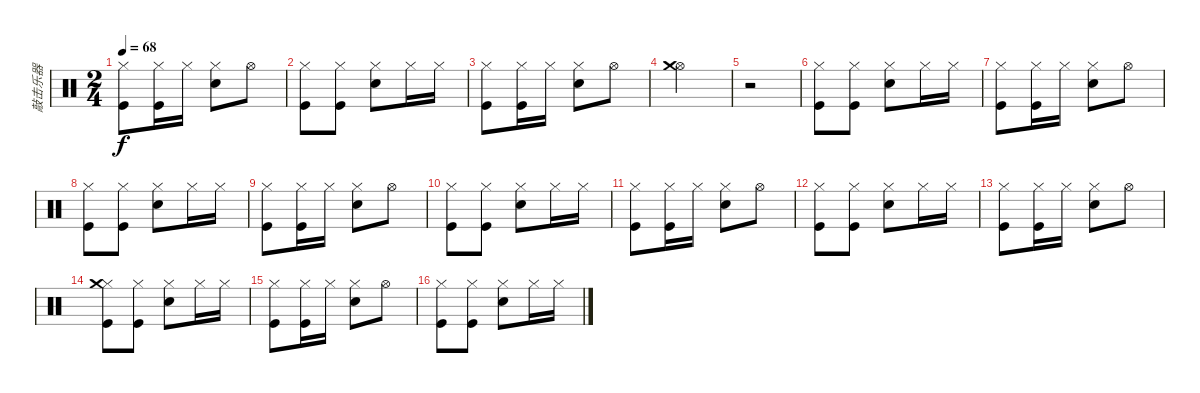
\track ("敲击乐器" "敲击乐器") {instrument percussion}
\staff {score}
\articulation defaults
\ts (2 4)
\tempo 68
\clef neutral
\ks c
("Hi-Hat (closed)" "Kick (hit)").8{dy f} ("Hi-Hat (closed)" "Kick (hit)").16 "Hi-Hat (closed)".16 ("Hi-Hat (closed)" "Snare (hit) 2").8 "Hi-Hat (open)".8 |
("Hi-Hat (closed)" "Kick (hit)").8 ("Hi-Hat (closed)" "Kick (hit)").8 ("Hi-Hat (closed)" "Snare (hit) 2").8 "Hi-Hat (closed)".16 "Hi-Hat (closed)".16 |
("Hi-Hat (closed)" "Kick (hit)").8 ("Hi-Hat (closed)" "Kick (hit)").16 "Hi-Hat (closed)".16 ("Hi-Hat (closed)" "Snare (hit) 2").8 "Hi-Hat (open)".8 |
("Hi-Hat (open)" "Crash medium (hit)").2 |
r.2 |
("Hi-Hat (closed)" "Kick (hit)").8 ("Hi-Hat (closed)" "Kick (hit)").8 ("Hi-Hat (closed)" "Snare (hit) 2").8 "Hi-Hat (closed)".16 "Hi-Hat (closed)".16 |
("Hi-Hat (closed)" "Kick (hit)").8 ("Hi-Hat (closed)" "Kick (hit)").16 "Hi-Hat (closed)".16 ("Hi-Hat (closed)" "Snare (hit) 2").8 "Hi-Hat (open)".8 |
("Hi-Hat (closed)" "Kick (hit)").8 ("Hi-Hat (closed)" "Kick (hit)").8 ("Hi-Hat (closed)" "Snare (hit) 2").8 "Hi-Hat (closed)".16 "Hi-Hat (closed)".16 |
("Hi-Hat (closed)" "Kick (hit)").8 ("Hi-Hat (closed)" "Kick (hit)").16 "Hi-Hat (closed)".16 ("Hi-Hat (closed)" "Snare (hit) 2").8 "Hi-Hat (open)".8 |
("Hi-Hat (closed)" "Kick (hit)").8 ("Hi-Hat (closed)" "Kick (hit)").8 ("Hi-Hat (closed)" "Snare (hit) 2").8 "Hi-Hat (closed)".16 "Hi-Hat (closed)".16 |
("Hi-Hat (closed)" "Kick (hit)").8 ("Hi-Hat (closed)" "Kick (hit)").16 "Hi-Hat (closed)".16 ("Hi-Hat (closed)" "Snare (hit) 2").8 "Hi-Hat (open)".8 |
("Hi-Hat (closed)" "Kick (hit)").8 ("Hi-Hat (closed)" "Kick (hit)").8 ("Hi-Hat (closed)" "Snare (hit) 2").8 "Hi-Hat (closed)".16 "Hi-Hat (closed)".16 |
("Hi-Hat (closed)" "Kick (hit)").8 ("Hi-Hat (closed)" "Kick (hit)").16 "Hi-Hat (closed)".16 ("Hi-Hat (closed)" "Snare (hit) 2").8 "Hi-Hat (open)".8 |
("Hi-Hat (closed)" "Crash medium (hit)" "Kick (hit)").8 ("Hi-Hat (closed)" "Kick (hit)").8 ("Hi-Hat (closed)" "Snare (hit) 2").8 "Hi-Hat (closed)".16 "Hi-Hat (closed)".16 |
("Hi-Hat (closed)" "Kick (hit)").8 ("Hi-Hat (closed)" "Kick (hit)").16 "Hi-Hat (closed)".16 ("Hi-Hat (closed)" "Snare (hit) 2").8 "Hi-Hat (open)".8 |
("Hi-Hat (closed)" "Kick (hit)").8 ("Hi-Hat (closed)" "Kick (hit)").8 ("Hi-Hat (closed)" "Snare (hit) 2").8 "Hi-Hat (closed)".16 "Hi-Hat (closed)".16
